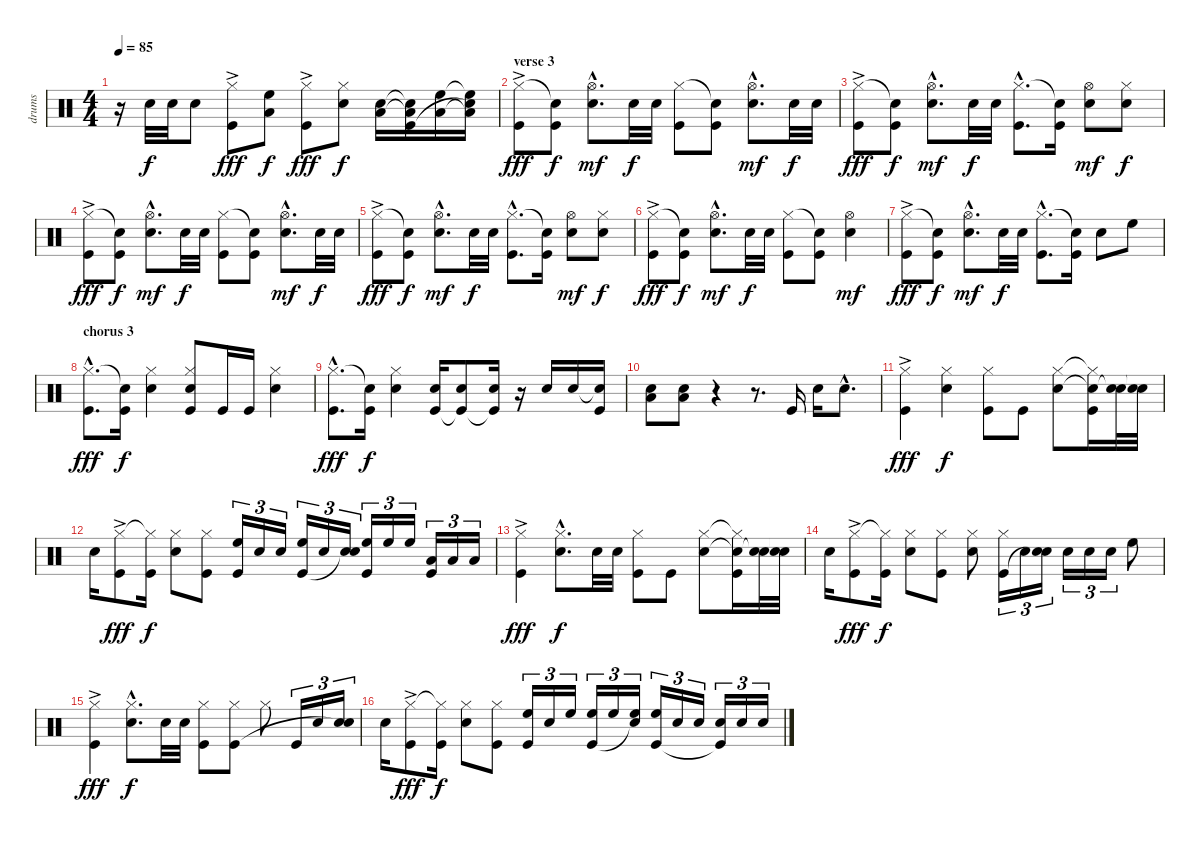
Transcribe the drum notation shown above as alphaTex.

\track ("drums" "drums") {instrument percussion}
\staff {score}
\articulation defaults
\ts (4 4)
\tempo 85
\clef neutral
\ks c
r.16{dy fff} "Snare (hit) 2".32{dy f} "Snare (hit) 2".32 "Snare (hit) 2".8 ("Hi-Hat (closed)"{ac} "Kick (hit)").8{dy fff} ("High Floor Tom (hit)" "Low Tom (hit)").8{dy f} ("Hi-Hat (closed)" "Kick (hit)"{ac}).8{dy fff} ("Hi-Hat (closed)" "Snare (hit) 2").8{dy f} ("Snare (hit) 2" "Low Floor Tom (hit)").16 ("Snare (hit) 2"{t} "Low Floor Tom (hit)"{t} "Kick (hit)").16 ("High Floor Tom (hit)" "Low Floor Tom (hit)").16 ("High Floor Tom (hit)"{t} "Low Floor Tom (hit)"{t} "Snare (hit)"{t}).16 |
\section ("" "verse 3")
("Hi-Hat (closed)" "Kick (hit)"{ac}).8{dy fff} ("Snare (hit)"{t} "Kick (hit)").8{dy f} ("Hi-Hat (open)"{hac} "Snare (hit) 2"{hac}).8{d dy mf} "Snare (hit) 2".32{dy f} "Snare (hit) 2".32 ("Hi-Hat (closed)" "Kick (hit)").8 ("Snare (hit)"{t} "Kick (hit)").8 ("Hi-Hat (open)"{hac} "Snare (hit) 2"{hac}).8{d dy mf} "Snare (hit) 2".32{dy f} "Snare (hit) 2".32 |
("Hi-Hat (closed)" "Kick (hit)"{ac}).8{dy fff} ("Snare (hit)"{t} "Kick (hit)").8{dy f} ("Hi-Hat (open)"{hac} "Snare (hit) 2"{hac}).8{d dy mf} "Snare (hit) 2".32{dy f} "Snare (hit) 2".32 ("Hi-Hat (closed)"{hac} "Kick (hit)"{hac}).8{d} ("Snare (hit)"{t} "Kick (hit)").16 ("Hi-Hat (open)" "Snare (hit) 2").8{dy mf} ("Hi-Hat (closed)" "Snare (hit) 2").8{dy f} |
("Hi-Hat (closed)" "Kick (hit)"{ac}).8{dy fff} ("Snare (hit)"{t} "Kick (hit)").8{dy f} ("Hi-Hat (open)"{hac} "Snare (hit) 2"{hac}).8{d dy mf} "Snare (hit) 2".32{dy f} "Snare (hit) 2".32 ("Hi-Hat (closed)" "Kick (hit)").8 ("Snare (hit)"{t} "Kick (hit)").8 ("Hi-Hat (open)"{hac} "Snare (hit) 2"{hac}).8{d dy mf} "Snare (hit) 2".32{dy f} "Snare (hit) 2".32 |
("Hi-Hat (closed)" "Kick (hit)"{ac}).8{dy fff} ("Snare (hit)"{t} "Kick (hit)").8{dy f} ("Hi-Hat (open)"{hac} "Snare (hit) 2"{hac}).8{d dy mf} "Snare (hit) 2".32{dy f} "Snare (hit) 2".32 ("Hi-Hat (closed)"{hac} "Kick (hit)"{hac}).8{d} ("Snare (hit)"{t} "Kick (hit)").16 ("Hi-Hat (open)" "Snare (hit) 2").8{dy mf} ("Hi-Hat (closed)" "Snare (hit) 2").8{dy f} |
("Hi-Hat (closed)" "Kick (hit)"{ac}).8{dy fff} ("Snare (hit)"{t} "Kick (hit)").8{dy f} ("Hi-Hat (open)"{hac} "Snare (hit) 2"{hac}).8{d dy mf} "Snare (hit) 2".32{dy f} "Snare (hit) 2".32 ("Hi-Hat (closed)" "Kick (hit)").8 ("Snare (hit)"{t} "Kick (hit)").8 ("Hi-Hat (open)" "Snare (hit) 2").4{dy mf} |
("Hi-Hat (closed)" "Kick (hit)"{ac}).8{dy fff} ("Snare (hit)"{t} "Kick (hit)").8{dy f} ("Hi-Hat (open)"{hac} "Snare (hit) 2"{hac}).8{d dy mf} "Snare (hit) 2".32{dy f} "Snare (hit) 2".32 ("Hi-Hat (closed)"{hac} "Kick (hit)"{hac}).8{d} ("Snare (hit)"{t} "Kick (hit)").16 "Snare (hit) 2".8 "High Floor Tom (hit)".8 |
\section ("" "chorus 3")
("Hi-Hat (closed)"{hac} "Kick (hit)"{hac}).8{d dy fff} ("Snare (hit)"{t} "Kick (hit)").16{dy f} ("Hi-Hat (closed)" "Snare (hit) 2").4 ("Hi-Hat (closed)" "Snare (hit) 2" "Kick (hit)").8 "Kick (hit)".16 "Kick (hit)".16 ("Hi-Hat (closed)" "Snare (hit) 2").4 |
("Hi-Hat (closed)"{hac} "Kick (hit)"{hac}).8{d dy fff} ("Snare (hit)"{t} "Kick (hit)").16{dy f} ("Hi-Hat (closed)" "Snare (hit) 2").4 ("Snare (hit) 2" "Kick (hit)").16 ("Snare (hit) 2" "Kick (hit)"{t}).8 ("Snare (hit) 2" "Kick (hit)"{t}).16 r.16 "Snare (hit) 2".16 "Snare (hit) 2".16 ("Snare (hit) 2"{t} "Kick (hit)").16 |
("Snare (hit) 2" "Low Floor Tom (hit)").8 ("Snare (hit) 2" "Low Floor Tom (hit)").8 r.4 r.8{d} "Kick (hit)".16 "Snare (hit) 2".16 "Snare (hit) 2"{hac}.8{d} |
("Hi-Hat (closed)" "Kick (hit)"{ac}).4{dy fff} ("Hi-Hat (closed)" "Snare (hit) 2").4{dy f} ("Hi-Hat (closed)" "Kick (hit)").8 "Kick (hit)".8 ("Hi-Hat (closed)" "Snare (hit) 2").8 ("Hi-Hat (closed)"{t} "Snare (hit)"{t} "Kick (hit)").16 ("Snare (hit) 2" "Snare (hit)"{t}).32 ("Snare (hit) 2" "Snare (hit)"{t}).32 |
"Snare (hit) 2".16 ("Hi-Hat (closed)"{ac} "Kick (hit)").8{dy fff} ("Hi-Hat (closed)"{t} "Kick (hit)").16{dy f} ("Hi-Hat (closed)" "Snare (hit) 2").8 ("Hi-Hat (closed)" "Kick (hit)").8 ("High Floor Tom (hit)" "Kick (hit)").16{tu (3 2)} "Snare (hit) 2".16{tu (3 2)} "Snare (hit) 2".16{tu (3 2)} ("High Floor Tom (hit)" "Kick (hit)").16{tu (3 2)} "Snare (hit) 2".16{tu (3 2)} ("Snare (hit) 2" "Snare (hit)"{t}).16{tu (3 2)} ("High Floor Tom (hit)" "Kick (hit)").16{tu (3 2)} "High Floor Tom (hit)".16{tu (3 2)} "High Floor Tom (hit)".16{tu (3 2)} ("Low Tom (hit)" "Kick (hit)").16{tu (3 2)} "Low Tom (hit)".16{tu (3 2)} "Low Tom (hit)".16{tu (3 2)} |
("Hi-Hat (closed)" "Kick (hit)"{ac}).4{dy fff} ("Hi-Hat (closed)"{hac} "Snare (hit) 2"{hac}).8{d dy f} "Snare (hit) 2".32 "Snare (hit) 2".32 ("Hi-Hat (closed)" "Kick (hit)").8 "Kick (hit)".8 ("Hi-Hat (closed)" "Snare (hit) 2").8 ("Hi-Hat (closed)"{t} "Snare (hit)"{t} "Kick (hit)").16 ("Snare (hit) 2" "Snare (hit)"{t}).32 ("Snare (hit) 2" "Snare (hit)"{t}).32 |
"Snare (hit) 2".16 ("Hi-Hat (closed)"{ac} "Kick (hit)").8{dy fff} ("Hi-Hat (closed)"{t} "Kick (hit)").16{dy f} ("Hi-Hat (closed)" "Snare (hit) 2").8 ("Hi-Hat (closed)" "Kick (hit)").8 ("Hi-Hat (closed)" "Snare (hit) 2").8 ("Hi-Hat (closed)" "Kick (hit)").16{tu (3 2)} "Snare (hit) 2".16{tu (3 2)} ("Snare (hit) 2" "Snare (hit)"{t}).16{tu (3 2)} "Snare (hit) 2".16{tu (3 2)} "Snare (hit) 2".16{tu (3 2)} "Snare (hit) 2".16{tu (3 2)} "High Floor Tom (hit)".8 |
("Hi-Hat (closed)" "Kick (hit)"{ac}).4{dy fff} ("Hi-Hat (closed)"{hac} "Snare (hit) 2"{hac}).8{d dy f} "Snare (hit) 2".32 "Snare (hit) 2".32 ("Hi-Hat (closed)" "Kick (hit)").8 ("Hi-Hat (closed)" "Kick (hit)").8 "Hi-Hat (closed)".8 "Kick (hit)".16{tu (3 2)} "Snare (hit) 2".16{tu (3 2)} ("Snare (hit) 2" "Snare (hit)"{t}).16{tu (3 2)} |
"Snare (hit) 2".16 ("Hi-Hat (closed)"{ac} "Kick (hit)").8{dy fff} ("Hi-Hat (closed)"{t} "Kick (hit)").16{dy f} ("Hi-Hat (closed)" "Snare (hit) 2").8 ("Hi-Hat (closed)" "Kick (hit)").8 ("High Floor Tom (hit)" "Kick (hit)").16{tu (3 2)} "Snare (hit) 2".16{tu (3 2)} "High Floor Tom (hit)".16{tu (3 2)} ("High Floor Tom (hit)" "Kick (hit)").16{tu (3 2)} "High Floor Tom (hit)".16{tu (3 2)} ("High Floor Tom (hit)" "Snare (hit)"{t}).16{tu (3 2)} ("High Floor Tom (hit)" "Kick (hit)").16{tu (3 2)} "Snare (hit) 2".16{tu (3 2)} "Snare (hit) 2".16{tu (3 2)} ("Snare (hit) 2" "Kick (hit)"{t}).16{tu (3 2)} "Snare (hit) 2".16{tu (3 2)} "Snare (hit) 2".16{tu (3 2)}
